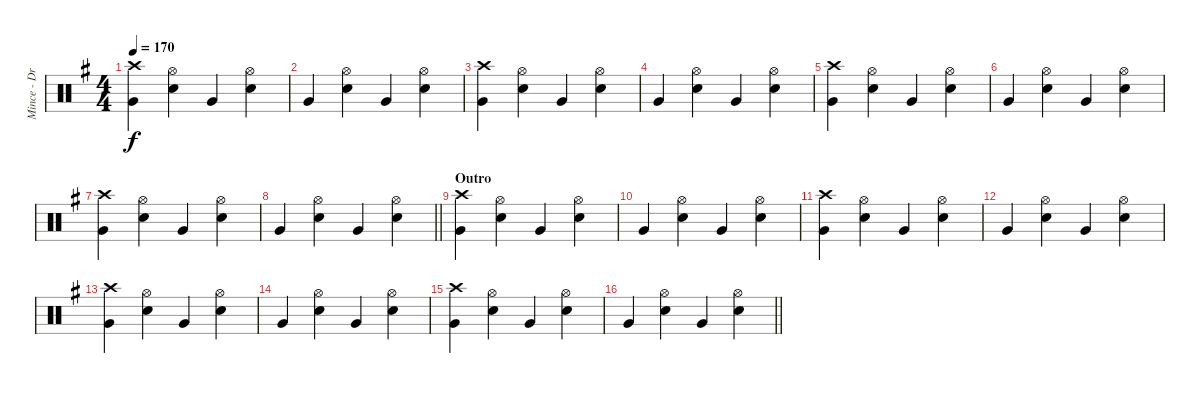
\track ("Mince - Drums" "Mince - Dr") {instrument percussion}
\staff {score}
\articulation defaults
\ts (4 4)
\tempo 170
\clef neutral
\ks g
("Crash high (hit)" "Very Low Tom (hit)").4{dy f} ("Snare (hit) 2" "Hi-Hat (open)").4 "Very Low Tom (hit)".4 ("Snare (hit) 2" "Hi-Hat (open)").4 |
"Very Low Tom (hit)".4 ("Snare (hit) 2" "Hi-Hat (open)").4 "Very Low Tom (hit)".4 ("Snare (hit) 2" "Hi-Hat (open)").4 |
("Crash high (hit)" "Very Low Tom (hit)").4 ("Snare (hit) 2" "Hi-Hat (open)").4 "Very Low Tom (hit)".4 ("Snare (hit) 2" "Hi-Hat (open)").4 |
"Very Low Tom (hit)".4 ("Snare (hit) 2" "Hi-Hat (open)").4 "Very Low Tom (hit)".4 ("Snare (hit) 2" "Hi-Hat (open)").4 |
("Crash high (hit)" "Very Low Tom (hit)").4 ("Snare (hit) 2" "Hi-Hat (open)").4 "Very Low Tom (hit)".4 ("Snare (hit) 2" "Hi-Hat (open)").4 |
"Very Low Tom (hit)".4 ("Snare (hit) 2" "Hi-Hat (open)").4 "Very Low Tom (hit)".4 ("Snare (hit) 2" "Hi-Hat (open)").4 |
("Crash high (hit)" "Very Low Tom (hit)").4 ("Snare (hit) 2" "Hi-Hat (open)").4 "Very Low Tom (hit)".4 ("Snare (hit) 2" "Hi-Hat (open)").4 |
\barLineRight lightlight "Very Low Tom (hit)".4
("Snare (hit) 2" "Hi-Hat (open)").4 "Very Low Tom (hit)".4 ("Snare (hit) 2" "Hi-Hat (open)").4 |
\section ("" "Outro")
("Crash high (hit)" "Very Low Tom (hit)").4 ("Snare (hit) 2" "Hi-Hat (open)").4 "Very Low Tom (hit)".4 ("Snare (hit) 2" "Hi-Hat (open)").4 |
"Very Low Tom (hit)".4 ("Snare (hit) 2" "Hi-Hat (open)").4 "Very Low Tom (hit)".4 ("Snare (hit) 2" "Hi-Hat (open)").4 |
("Crash high (hit)" "Very Low Tom (hit)").4 ("Snare (hit) 2" "Hi-Hat (open)").4 "Very Low Tom (hit)".4 ("Snare (hit) 2" "Hi-Hat (open)").4 |
"Very Low Tom (hit)".4 ("Snare (hit) 2" "Hi-Hat (open)").4 "Very Low Tom (hit)".4 ("Snare (hit) 2" "Hi-Hat (open)").4 |
("Crash high (hit)" "Very Low Tom (hit)").4 ("Snare (hit) 2" "Hi-Hat (open)").4 "Very Low Tom (hit)".4 ("Snare (hit) 2" "Hi-Hat (open)").4 |
"Very Low Tom (hit)".4 ("Snare (hit) 2" "Hi-Hat (open)").4 "Very Low Tom (hit)".4 ("Snare (hit) 2" "Hi-Hat (open)").4 |
("Crash high (hit)" "Very Low Tom (hit)").4 ("Snare (hit) 2" "Hi-Hat (open)").4 "Very Low Tom (hit)".4 ("Snare (hit) 2" "Hi-Hat (open)").4 |
\barLineRight lightlight "Very Low Tom (hit)".4
("Snare (hit) 2" "Hi-Hat (open)").4 "Very Low Tom (hit)".4 ("Snare (hit) 2" "Hi-Hat (open)").4
